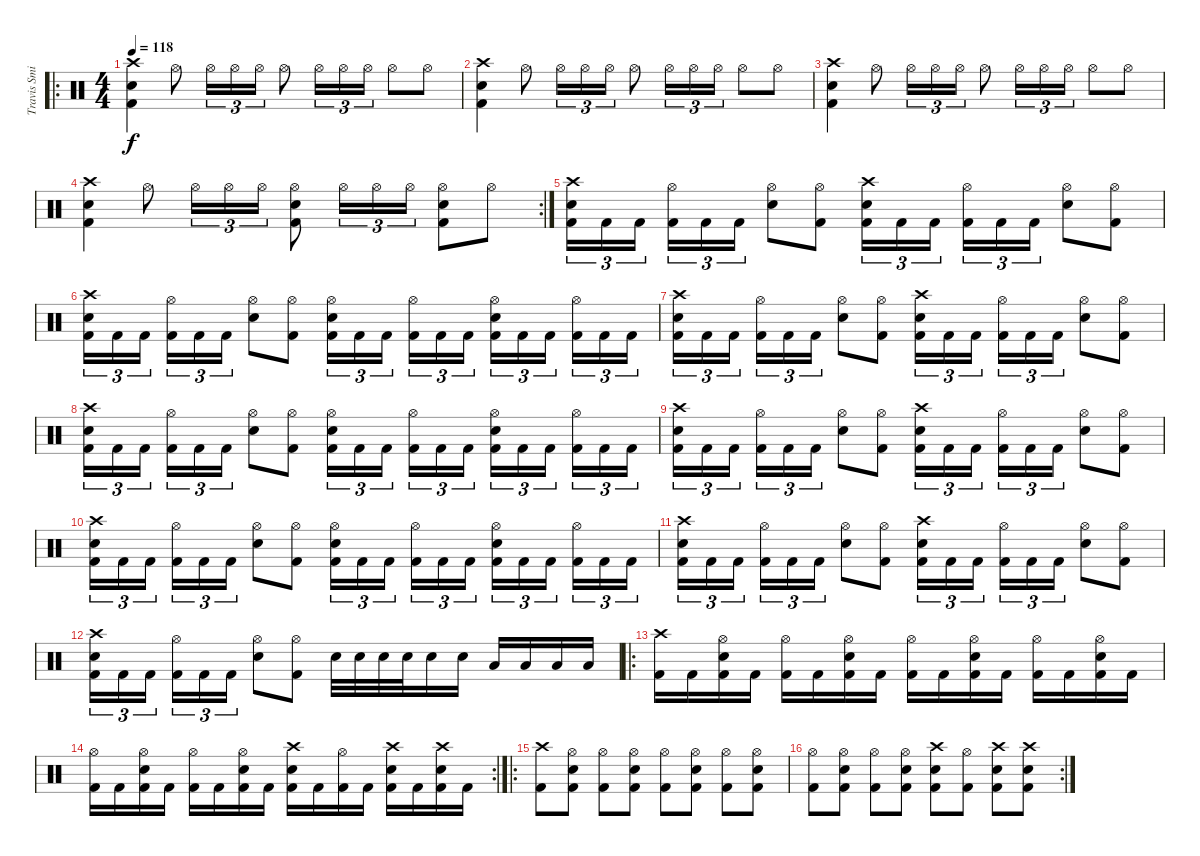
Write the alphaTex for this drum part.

\track ("Travis Smith" "Travis Smi") {instrument percussion}
\staff {score}
\articulation defaults
\ro
\ts (4 4)
\tempo 118
\clef neutral
\ks c
("Kick (hit) 2" "Snare (hit) 2" "Crash high (hit)").4{dy f} "Hi-Hat (open)".8 "Hi-Hat (open)".16{tu (3 2)} "Hi-Hat (open)".16{tu (3 2)} "Hi-Hat (open)".16{tu (3 2)} "Hi-Hat (open)".8 "Hi-Hat (open)".16{tu (3 2)} "Hi-Hat (open)".16{tu (3 2)} "Hi-Hat (open)".16{tu (3 2)} "Hi-Hat (open)".8 "Hi-Hat (open)".8 |
("Kick (hit) 2" "Snare (hit) 2" "Crash high (hit)").4 "Hi-Hat (open)".8 "Hi-Hat (open)".16{tu (3 2)} "Hi-Hat (open)".16{tu (3 2)} "Hi-Hat (open)".16{tu (3 2)} "Hi-Hat (open)".8 "Hi-Hat (open)".16{tu (3 2)} "Hi-Hat (open)".16{tu (3 2)} "Hi-Hat (open)".16{tu (3 2)} "Hi-Hat (open)".8 "Hi-Hat (open)".8 |
("Kick (hit) 2" "Snare (hit) 2" "Crash high (hit)").4 "Hi-Hat (open)".8 "Hi-Hat (open)".16{tu (3 2)} "Hi-Hat (open)".16{tu (3 2)} "Hi-Hat (open)".16{tu (3 2)} "Hi-Hat (open)".8 "Hi-Hat (open)".16{tu (3 2)} "Hi-Hat (open)".16{tu (3 2)} "Hi-Hat (open)".16{tu (3 2)} "Hi-Hat (open)".8 "Hi-Hat (open)".8 |
\rc 2
("Kick (hit) 2" "Snare (hit) 2" "Crash high (hit)").4 "Hi-Hat (open)".8 "Hi-Hat (open)".16{tu (3 2)} "Hi-Hat (open)".16{tu (3 2)} "Hi-Hat (open)".16{tu (3 2)} ("Kick (hit) 2" "Snare (hit) 2" "Hi-Hat (open)").8 "Hi-Hat (open)".16{tu (3 2)} "Hi-Hat (open)".16{tu (3 2)} "Hi-Hat (open)".16{tu (3 2)} ("Kick (hit) 2" "Snare (hit) 2" "Hi-Hat (open)").8 "Hi-Hat (open)".8 |
("Kick (hit) 2" "Snare (hit) 2" "Crash high (hit)").16{tu (3 2)} "Kick (hit) 2".16{tu (3 2)} "Kick (hit) 2".16{tu (3 2) beam splitsecondary} ("Kick (hit) 2" "Hi-Hat (open)").16{tu (3 2)} "Kick (hit) 2".16{tu (3 2)} "Kick (hit) 2".16{tu (3 2)} ("Snare (hit) 2" "Hi-Hat (open)").8 ("Kick (hit) 2" "Hi-Hat (open)").8 ("Kick (hit) 2" "Snare (hit) 2" "Crash high (hit)").16{tu (3 2)} "Kick (hit) 2".16{tu (3 2)} "Kick (hit) 2".16{tu (3 2) beam splitsecondary} ("Kick (hit) 2" "Hi-Hat (open)").16{tu (3 2)} "Kick (hit) 2".16{tu (3 2)} "Kick (hit) 2".16{tu (3 2)} ("Snare (hit) 2" "Hi-Hat (open)").8 ("Kick (hit) 2" "Hi-Hat (open)").8 |
("Kick (hit) 2" "Snare (hit) 2" "Crash high (hit)").16{tu (3 2)} "Kick (hit) 2".16{tu (3 2)} "Kick (hit) 2".16{tu (3 2) beam splitsecondary} ("Kick (hit) 2" "Hi-Hat (open)").16{tu (3 2)} "Kick (hit) 2".16{tu (3 2)} "Kick (hit) 2".16{tu (3 2)} ("Snare (hit) 2" "Hi-Hat (open)").8 ("Kick (hit) 2" "Hi-Hat (open)").8 ("Kick (hit) 2" "Snare (hit) 2" "Hi-Hat (open)").16{tu (3 2)} "Kick (hit) 2".16{tu (3 2)} "Kick (hit) 2".16{tu (3 2) beam splitsecondary} ("Kick (hit) 2" "Hi-Hat (open)").16{tu (3 2)} "Kick (hit) 2".16{tu (3 2)} "Kick (hit) 2".16{tu (3 2)} ("Kick (hit) 2" "Snare (hit) 2" "Hi-Hat (open)").16{tu (3 2)} "Kick (hit) 2".16{tu (3 2)} "Kick (hit) 2".16{tu (3 2) beam splitsecondary} ("Kick (hit) 2" "Hi-Hat (open)").16{tu (3 2)} "Kick (hit) 2".16{tu (3 2)} "Kick (hit) 2".16{tu (3 2)} |
("Kick (hit) 2" "Snare (hit) 2" "Crash high (hit)").16{tu (3 2)} "Kick (hit) 2".16{tu (3 2)} "Kick (hit) 2".16{tu (3 2) beam splitsecondary} ("Kick (hit) 2" "Hi-Hat (open)").16{tu (3 2)} "Kick (hit) 2".16{tu (3 2)} "Kick (hit) 2".16{tu (3 2)} ("Snare (hit) 2" "Hi-Hat (open)").8 ("Kick (hit) 2" "Hi-Hat (open)").8 ("Kick (hit) 2" "Snare (hit) 2" "Crash high (hit)").16{tu (3 2)} "Kick (hit) 2".16{tu (3 2)} "Kick (hit) 2".16{tu (3 2) beam splitsecondary} ("Kick (hit) 2" "Hi-Hat (open)").16{tu (3 2)} "Kick (hit) 2".16{tu (3 2)} "Kick (hit) 2".16{tu (3 2)} ("Snare (hit) 2" "Hi-Hat (open)").8 ("Kick (hit) 2" "Hi-Hat (open)").8 |
("Kick (hit) 2" "Snare (hit) 2" "Crash high (hit)").16{tu (3 2)} "Kick (hit) 2".16{tu (3 2)} "Kick (hit) 2".16{tu (3 2) beam splitsecondary} ("Kick (hit) 2" "Hi-Hat (open)").16{tu (3 2)} "Kick (hit) 2".16{tu (3 2)} "Kick (hit) 2".16{tu (3 2)} ("Snare (hit) 2" "Hi-Hat (open)").8 ("Kick (hit) 2" "Hi-Hat (open)").8 ("Kick (hit) 2" "Snare (hit) 2" "Hi-Hat (open)").16{tu (3 2)} "Kick (hit) 2".16{tu (3 2)} "Kick (hit) 2".16{tu (3 2) beam splitsecondary} ("Kick (hit) 2" "Hi-Hat (open)").16{tu (3 2)} "Kick (hit) 2".16{tu (3 2)} "Kick (hit) 2".16{tu (3 2)} ("Kick (hit) 2" "Snare (hit) 2" "Hi-Hat (open)").16{tu (3 2)} "Kick (hit) 2".16{tu (3 2)} "Kick (hit) 2".16{tu (3 2) beam splitsecondary} ("Kick (hit) 2" "Hi-Hat (open)").16{tu (3 2)} "Kick (hit) 2".16{tu (3 2)} "Kick (hit) 2".16{tu (3 2)} |
("Kick (hit) 2" "Snare (hit) 2" "Crash high (hit)").16{tu (3 2)} "Kick (hit) 2".16{tu (3 2)} "Kick (hit) 2".16{tu (3 2) beam splitsecondary} ("Kick (hit) 2" "Hi-Hat (open)").16{tu (3 2)} "Kick (hit) 2".16{tu (3 2)} "Kick (hit) 2".16{tu (3 2)} ("Snare (hit) 2" "Hi-Hat (open)").8 ("Kick (hit) 2" "Hi-Hat (open)").8 ("Kick (hit) 2" "Snare (hit) 2" "Crash high (hit)").16{tu (3 2)} "Kick (hit) 2".16{tu (3 2)} "Kick (hit) 2".16{tu (3 2) beam splitsecondary} ("Kick (hit) 2" "Hi-Hat (open)").16{tu (3 2)} "Kick (hit) 2".16{tu (3 2)} "Kick (hit) 2".16{tu (3 2)} ("Snare (hit) 2" "Hi-Hat (open)").8 ("Kick (hit) 2" "Hi-Hat (open)").8 |
("Kick (hit) 2" "Snare (hit) 2" "Crash high (hit)").16{tu (3 2)} "Kick (hit) 2".16{tu (3 2)} "Kick (hit) 2".16{tu (3 2) beam splitsecondary} ("Kick (hit) 2" "Hi-Hat (open)").16{tu (3 2)} "Kick (hit) 2".16{tu (3 2)} "Kick (hit) 2".16{tu (3 2)} ("Snare (hit) 2" "Hi-Hat (open)").8 ("Kick (hit) 2" "Hi-Hat (open)").8 ("Kick (hit) 2" "Snare (hit) 2" "Hi-Hat (open)").16{tu (3 2)} "Kick (hit) 2".16{tu (3 2)} "Kick (hit) 2".16{tu (3 2) beam splitsecondary} ("Kick (hit) 2" "Hi-Hat (open)").16{tu (3 2)} "Kick (hit) 2".16{tu (3 2)} "Kick (hit) 2".16{tu (3 2)} ("Kick (hit) 2" "Snare (hit) 2" "Hi-Hat (open)").16{tu (3 2)} "Kick (hit) 2".16{tu (3 2)} "Kick (hit) 2".16{tu (3 2) beam splitsecondary} ("Kick (hit) 2" "Hi-Hat (open)").16{tu (3 2)} "Kick (hit) 2".16{tu (3 2)} "Kick (hit) 2".16{tu (3 2)} |
("Kick (hit) 2" "Snare (hit) 2" "Crash high (hit)").16{tu (3 2)} "Kick (hit) 2".16{tu (3 2)} "Kick (hit) 2".16{tu (3 2) beam splitsecondary} ("Kick (hit) 2" "Hi-Hat (open)").16{tu (3 2)} "Kick (hit) 2".16{tu (3 2)} "Kick (hit) 2".16{tu (3 2)} ("Snare (hit) 2" "Hi-Hat (open)").8 ("Kick (hit) 2" "Hi-Hat (open)").8 ("Kick (hit) 2" "Snare (hit) 2" "Crash high (hit)").16{tu (3 2)} "Kick (hit) 2".16{tu (3 2)} "Kick (hit) 2".16{tu (3 2) beam splitsecondary} ("Kick (hit) 2" "Hi-Hat (open)").16{tu (3 2)} "Kick (hit) 2".16{tu (3 2)} "Kick (hit) 2".16{tu (3 2)} ("Snare (hit) 2" "Hi-Hat (open)").8 ("Kick (hit) 2" "Hi-Hat (open)").8 |
("Kick (hit) 2" "Snare (hit) 2" "Crash high (hit)").16{tu (3 2)} "Kick (hit) 2".16{tu (3 2)} "Kick (hit) 2".16{tu (3 2) beam splitsecondary} ("Kick (hit) 2" "Hi-Hat (open)").16{tu (3 2)} "Kick (hit) 2".16{tu (3 2)} "Kick (hit) 2".16{tu (3 2)} ("Snare (hit) 2" "Hi-Hat (open)").8 ("Kick (hit) 2" "Hi-Hat (open)").8 "Snare (hit) 2".32 "Snare (hit) 2".32 "Snare (hit) 2".32 "Snare (hit) 2".32 "Snare (hit) 2".16 "Snare (hit) 2".16 "Low Tom (hit)".16 "Low Tom (hit)".16 "Low Tom (hit)".16 "Low Tom (hit)".16 |
\ro
("Kick (hit) 2" "Crash high (hit)").16 "Kick (hit) 2".16 ("Kick (hit) 2" "Snare (hit) 2" "Hi-Hat (open)").16 "Kick (hit) 2".16 ("Kick (hit) 2" "Hi-Hat (open)").16 "Kick (hit) 2".16 ("Kick (hit) 2" "Snare (hit) 2" "Hi-Hat (open)").16 "Kick (hit) 2".16 ("Kick (hit) 2" "Hi-Hat (open)").16 "Kick (hit) 2".16 ("Kick (hit) 2" "Snare (hit) 2" "Hi-Hat (open)").16 "Kick (hit) 2".16 ("Kick (hit) 2" "Hi-Hat (open)").16 "Kick (hit) 2".16 ("Kick (hit) 2" "Snare (hit) 2" "Hi-Hat (open)").16 "Kick (hit) 2".16 |
\rc 2
("Kick (hit) 2" "Hi-Hat (open)").16 "Kick (hit) 2".16 ("Kick (hit) 2" "Snare (hit) 2" "Hi-Hat (open)").16 "Kick (hit) 2".16 ("Kick (hit) 2" "Hi-Hat (open)").16 "Kick (hit) 2".16 ("Kick (hit) 2" "Snare (hit) 2" "Hi-Hat (open)").16 "Kick (hit) 2".16 ("Kick (hit) 2" "Snare (hit) 2" "Crash high (hit)").16 "Kick (hit) 2".16 ("Kick (hit) 2" "Hi-Hat (open)").16 "Kick (hit) 2".16 ("Kick (hit) 2" "Snare (hit) 2" "Crash high (hit)").16 "Kick (hit) 2".16 ("Kick (hit) 2" "Snare (hit) 2" "Crash high (hit)").16 "Kick (hit) 2".16 |
\ro
("Kick (hit) 2" "Crash high (hit)").8 ("Kick (hit) 2" "Snare (hit) 2" "Hi-Hat (open)").8 ("Kick (hit) 2" "Hi-Hat (open)").8 ("Kick (hit) 2" "Snare (hit) 2" "Hi-Hat (open)").8 ("Kick (hit) 2" "Hi-Hat (open)").8 ("Kick (hit) 2" "Snare (hit) 2" "Hi-Hat (open)").8 ("Kick (hit) 2" "Hi-Hat (open)").8 ("Kick (hit) 2" "Snare (hit) 2" "Hi-Hat (open)").8 |
\rc 2
("Kick (hit) 2" "Hi-Hat (open)").8 ("Kick (hit) 2" "Snare (hit) 2" "Hi-Hat (open)").8 ("Kick (hit) 2" "Hi-Hat (open)").8 ("Kick (hit) 2" "Snare (hit) 2" "Hi-Hat (open)").8 ("Kick (hit) 2" "Snare (hit) 2" "Crash high (hit)").8 ("Kick (hit) 2" "Hi-Hat (open)").8 ("Kick (hit) 2" "Snare (hit) 2" "Crash high (hit)").8 ("Kick (hit) 2" "Snare (hit) 2" "Crash high (hit)").8
